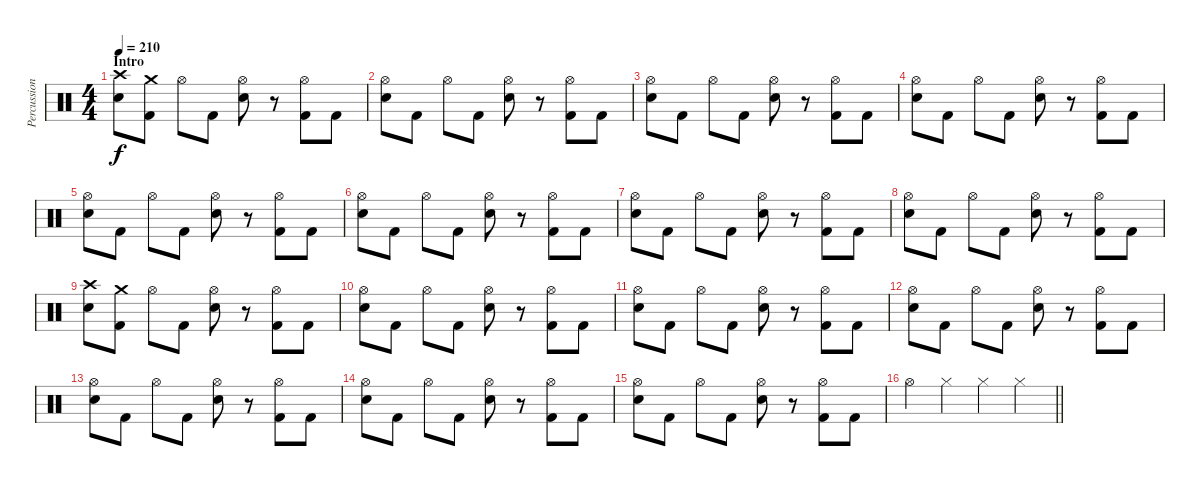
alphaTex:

\track ("Percussion" "Percussion") {instrument percussion}
\staff {score}
\articulation defaults
\ts (4 4)
\section ("" "Intro")
\tempo 210
\clef neutral
\ks c
("Crash high (hit)" "Electric Snare (hit)").8{dy f} ("Crash medium (hit)" "Kick (hit) 2").8 "Hi-Hat (open)".8 "Kick (hit) 2".8 ("Hi-Hat (open)" "Electric Snare (hit)").8 r.8 ("Hi-Hat (open)" "Kick (hit) 2").8 "Kick (hit) 2".8 |
("Hi-Hat (open)" "Electric Snare (hit)").8 "Kick (hit) 2".8 "Hi-Hat (open)".8 "Kick (hit) 2".8 ("Hi-Hat (open)" "Electric Snare (hit)").8 r.8 ("Hi-Hat (open)" "Kick (hit) 2").8 "Kick (hit) 2".8 |
("Hi-Hat (open)" "Electric Snare (hit)").8 "Kick (hit) 2".8 "Hi-Hat (open)".8 "Kick (hit) 2".8 ("Hi-Hat (open)" "Electric Snare (hit)").8 r.8 ("Hi-Hat (open)" "Kick (hit) 2").8 "Kick (hit) 2".8 |
("Hi-Hat (open)" "Electric Snare (hit)").8 "Kick (hit) 2".8 "Hi-Hat (open)".8 "Kick (hit) 2".8 ("Hi-Hat (open)" "Electric Snare (hit)").8 r.8 ("Hi-Hat (open)" "Kick (hit) 2").8 "Kick (hit) 2".8 |
("Hi-Hat (open)" "Electric Snare (hit)").8 "Kick (hit) 2".8 "Hi-Hat (open)".8 "Kick (hit) 2".8 ("Hi-Hat (open)" "Electric Snare (hit)").8 r.8 ("Hi-Hat (open)" "Kick (hit) 2").8 "Kick (hit) 2".8 |
("Hi-Hat (open)" "Electric Snare (hit)").8 "Kick (hit) 2".8 "Hi-Hat (open)".8 "Kick (hit) 2".8 ("Hi-Hat (open)" "Electric Snare (hit)").8 r.8 ("Hi-Hat (open)" "Kick (hit) 2").8 "Kick (hit) 2".8 |
("Hi-Hat (open)" "Electric Snare (hit)").8 "Kick (hit) 2".8 "Hi-Hat (open)".8 "Kick (hit) 2".8 ("Hi-Hat (open)" "Electric Snare (hit)").8 r.8 ("Hi-Hat (open)" "Kick (hit) 2").8 "Kick (hit) 2".8 |
("Hi-Hat (open)" "Electric Snare (hit)").8 "Kick (hit) 2".8 "Hi-Hat (open)".8 "Kick (hit) 2".8 ("Hi-Hat (open)" "Electric Snare (hit)").8 r.8 ("Hi-Hat (open)" "Kick (hit) 2").8 "Kick (hit) 2".8 |
("Crash high (hit)" "Electric Snare (hit)").8 ("Crash medium (hit)" "Kick (hit) 2").8 "Hi-Hat (open)".8 "Kick (hit) 2".8 ("Hi-Hat (open)" "Electric Snare (hit)").8 r.8 ("Hi-Hat (open)" "Kick (hit) 2").8 "Kick (hit) 2".8 |
("Hi-Hat (open)" "Electric Snare (hit)").8 "Kick (hit) 2".8 "Hi-Hat (open)".8 "Kick (hit) 2".8 ("Hi-Hat (open)" "Electric Snare (hit)").8 r.8 ("Hi-Hat (open)" "Kick (hit) 2").8 "Kick (hit) 2".8 |
("Hi-Hat (open)" "Electric Snare (hit)").8 "Kick (hit) 2".8 "Hi-Hat (open)".8 "Kick (hit) 2".8 ("Hi-Hat (open)" "Electric Snare (hit)").8 r.8 ("Hi-Hat (open)" "Kick (hit) 2").8 "Kick (hit) 2".8 |
("Hi-Hat (open)" "Electric Snare (hit)").8 "Kick (hit) 2".8 "Hi-Hat (open)".8 "Kick (hit) 2".8 ("Hi-Hat (open)" "Electric Snare (hit)").8 r.8 ("Hi-Hat (open)" "Kick (hit) 2").8 "Kick (hit) 2".8 |
("Hi-Hat (open)" "Electric Snare (hit)").8 "Kick (hit) 2".8 "Hi-Hat (open)".8 "Kick (hit) 2".8 ("Hi-Hat (open)" "Electric Snare (hit)").8 r.8 ("Hi-Hat (open)" "Kick (hit) 2").8 "Kick (hit) 2".8 |
("Hi-Hat (open)" "Electric Snare (hit)").8 "Kick (hit) 2".8 "Hi-Hat (open)".8 "Kick (hit) 2".8 ("Hi-Hat (open)" "Electric Snare (hit)").8 r.8 ("Hi-Hat (open)" "Kick (hit) 2").8 "Kick (hit) 2".8 |
("Hi-Hat (open)" "Electric Snare (hit)").8 "Kick (hit) 2".8 "Hi-Hat (open)".8 "Kick (hit) 2".8 ("Hi-Hat (open)" "Electric Snare (hit)").8 r.8 ("Hi-Hat (open)" "Kick (hit) 2").8 "Kick (hit) 2".8 |
\barLineRight lightlight "Hi-Hat (open)".4 "Hi-Hat (closed)".4 "Hi-Hat (closed)".4 "Hi-Hat (closed)".4
